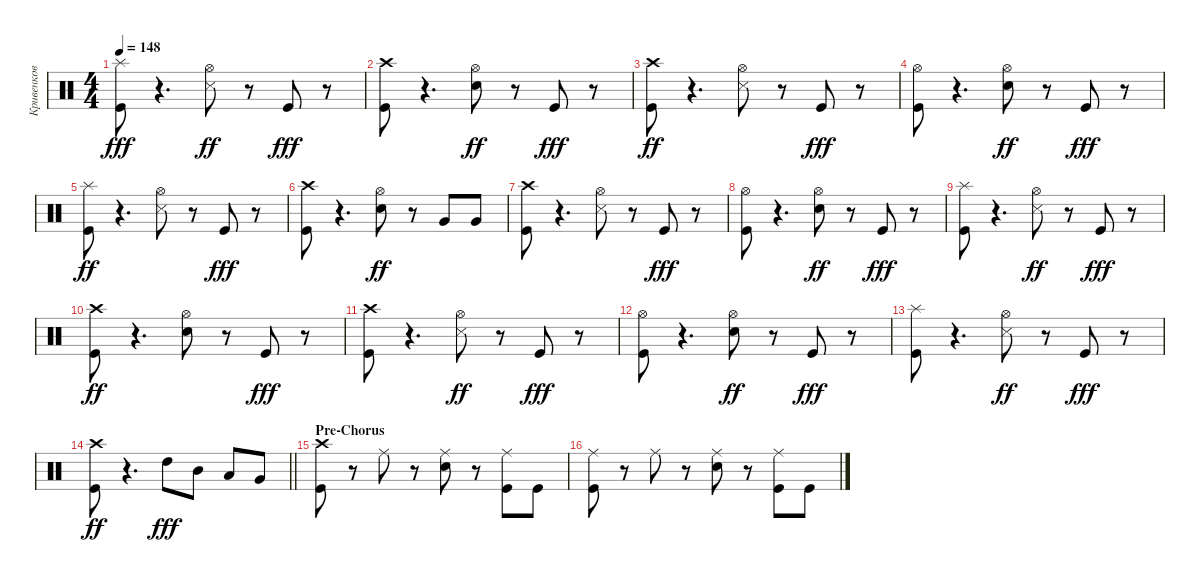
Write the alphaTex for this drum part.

\track ("Кривенков" "Кривенков") {instrument percussion}
\staff {score}
\articulation defaults
\ts (4 4)
\tempo 148
\clef neutral
\ks c
("Splash (hit)" "Kick (hit)").8{dy fff} r.4{d} ("Hi-Hat (open)" "Snare (side stick) 3").8{dy ff} r.8 "Kick (hit)".8{dy fff} r.8 |
("Crash high (hit)" "Kick (hit)").8 r.4{d} ("Hi-Hat (open)" "Snare (hit) 2").8{dy ff} r.8 "Kick (hit)".8{dy fff} r.8 |
("Kick (hit)" "Crash high (hit)").8{dy ff} r.4{d} ("Snare (side stick) 3" "Hi-Hat (open)").8 r.8 "Kick (hit)".8{dy fff} r.8 |
("Hi-Hat (open)" "Kick (hit)").8 r.4{d} ("Hi-Hat (open)" "Snare (hit) 2").8{dy ff} r.8 "Kick (hit)".8{dy fff} r.8 |
("Kick (hit)" "Splash (hit)").8{dy ff} r.4{d} ("Snare (side stick) 3" "Hi-Hat (open)").8 r.8 "Kick (hit)".8{dy fff} r.8 |
("Crash high (hit)" "Kick (hit)").8 r.4{d} ("Snare (hit) 2" "Hi-Hat (open)").8{dy ff} r.8 "Very Low Tom (hit)".8 "Very Low Tom (hit)".8 |
("Kick (hit)" "Crash high (hit)").8 r.4{d} ("Snare (side stick) 3" "Hi-Hat (open)").8 r.8 "Kick (hit)".8{dy fff} r.8 |
("Hi-Hat (open)" "Kick (hit)").8 r.4{d} ("Hi-Hat (open)" "Snare (hit) 2").8{dy ff} r.8 "Kick (hit)".8{dy fff} r.8 |
("Splash (hit)" "Kick (hit)").8 r.4{d} ("Hi-Hat (open)" "Snare (side stick) 3").8{dy ff} r.8 "Kick (hit)".8{dy fff} r.8 |
("Kick (hit)" "Crash high (hit)").8{dy ff} r.4{d} ("Hi-Hat (open)" "Snare (hit) 2").8 r.8 "Kick (hit)".8{dy fff} r.8 |
("Crash high (hit)" "Kick (hit)").8 r.4{d} ("Snare (side stick) 3" "Hi-Hat (open)").8{dy ff} r.8 "Kick (hit)".8{dy fff} r.8 |
("Hi-Hat (open)" "Kick (hit)").8 r.4{d} ("Hi-Hat (open)" "Snare (hit) 2").8{dy ff} r.8 "Kick (hit)".8{dy fff} r.8 |
("Splash (hit)" "Kick (hit)").8 r.4{d} ("Snare (side stick) 3" "Hi-Hat (open)").8{dy ff} r.8 "Kick (hit)".8{dy fff} r.8 |
\barLineRight lightlight
("Kick (hit)" "Crash high (hit)").8{dy ff} r.4{d} "High Tom (hit)".8{dy fff} "Mid Tom (hit)".8 "Low Tom (hit)".8 "Very Low Tom (hit)".8 |
\section ("" "Pre-Chorus ")
("Crash high (hit)" "Kick (hit)").8 r.8 "Ride (middle)".8 r.8 ("Snare (hit) 2" "Ride (middle)").8 r.8 ("Kick (hit)" "Ride (middle)").8 "Kick (hit)".8 |
("Ride (middle)" "Kick (hit)").8 r.8 "Ride (middle)".8 r.8 ("Snare (hit) 2" "Ride (middle)").8 r.8 ("Kick (hit)" "Ride (middle)").8 "Kick (hit)".8
